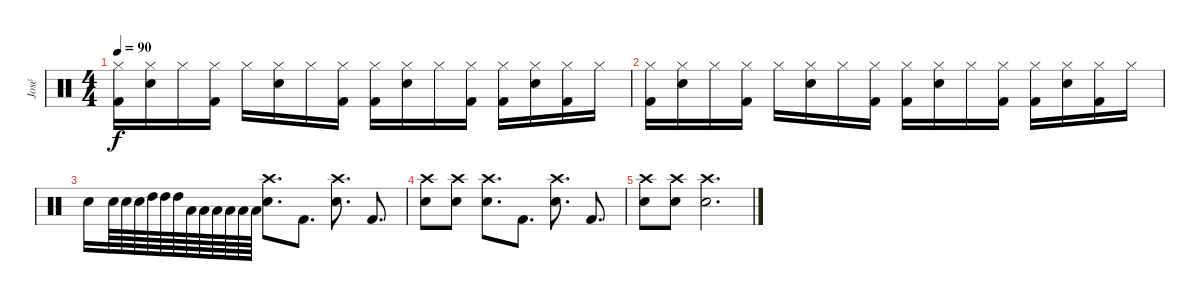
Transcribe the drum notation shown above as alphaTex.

\track ("José" "José") {instrument percussion}
\staff {score}
\articulation defaults
\ts (4 4)
\tempo 90
\clef neutral
\ks c
("Hi-Hat (closed)" "Kick (hit) 2").16{dy f} ("Hi-Hat (closed)" "Electric Snare (hit)").16 "Hi-Hat (closed)".16 ("Hi-Hat (closed)" "Kick (hit) 2").16 "Hi-Hat (closed)".16 ("Hi-Hat (closed)" "Electric Snare (hit)").16 "Hi-Hat (closed)".16 ("Hi-Hat (closed)" "Kick (hit) 2").16 ("Hi-Hat (closed)" "Kick (hit) 2").16 ("Hi-Hat (closed)" "Electric Snare (hit)").16 "Hi-Hat (closed)".16 ("Hi-Hat (closed)" "Kick (hit) 2").16 ("Hi-Hat (closed)" "Kick (hit) 2").16 ("Hi-Hat (closed)" "Electric Snare (hit)").16 ("Hi-Hat (closed)" "Kick (hit) 2").16 "Hi-Hat (closed)".16 |
("Hi-Hat (closed)" "Kick (hit) 2").16 ("Hi-Hat (closed)" "Electric Snare (hit)").16 "Hi-Hat (closed)".16 ("Hi-Hat (closed)" "Kick (hit) 2").16 "Hi-Hat (closed)".16 ("Hi-Hat (closed)" "Electric Snare (hit)").16 "Hi-Hat (closed)".16 ("Hi-Hat (closed)" "Kick (hit) 2").16 ("Hi-Hat (closed)" "Kick (hit) 2").16 ("Hi-Hat (closed)" "Electric Snare (hit)").16 "Hi-Hat (closed)".16 ("Hi-Hat (closed)" "Kick (hit) 2").16 ("Hi-Hat (closed)" "Kick (hit) 2").16 ("Hi-Hat (closed)" "Electric Snare (hit)").16 ("Hi-Hat (closed)" "Kick (hit) 2").16 "Hi-Hat (closed)".16 |
"Electric Snare (hit)".16 "Electric Snare (hit)".64 "Electric Snare (hit)".64 "Electric Snare (hit)".64 "High Tom (hit)".64 "High Tom (hit)".64 "High Tom (hit)".64 "Low Tom (hit)".64 "Low Tom (hit)".64 "Low Tom (hit)".64 "Low Floor Tom (hit)".64 "Low Floor Tom (hit)".64 "Low Floor Tom (hit)".64 ("Crash high (hit)" "Electric Snare (hit)").8{d} "Kick (hit) 2".8{d} ("Crash high (hit)" "Electric Snare (hit)").8{d} "Kick (hit) 2".8{d} |
("Crash high (hit)" "Electric Snare (hit)").8 ("Crash high (hit)" "Electric Snare (hit)").8 ("Crash high (hit)" "Electric Snare (hit)").8{d} "Kick (hit) 2".8{d} ("Crash high (hit)" "Electric Snare (hit)").8{d} "Kick (hit) 2".8{d} |
("Crash high (hit)" "Electric Snare (hit)").8 ("Crash high (hit)" "Electric Snare (hit)").8 ("Crash high (hit)" "Electric Snare (hit)").2{d}
